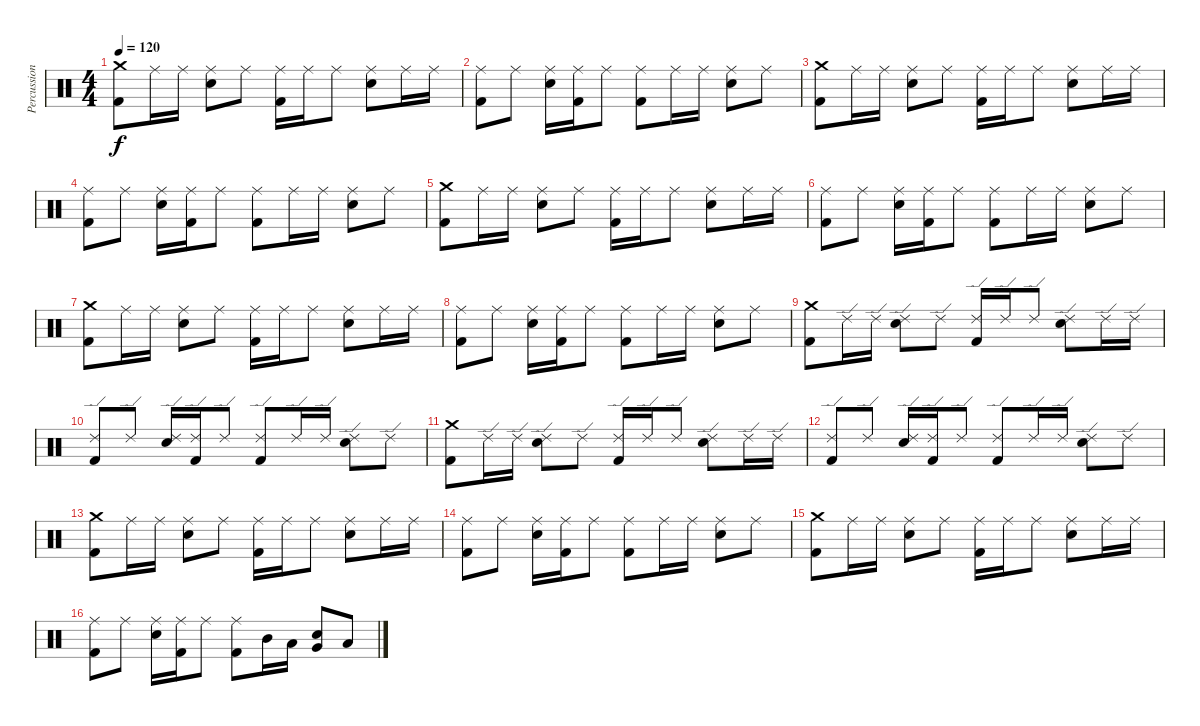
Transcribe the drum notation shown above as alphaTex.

\track ("Percussion" "Percussion") {instrument percussion}
\staff {score}
\articulation defaults
\ts (4 4)
\tempo 120
\clef neutral
\ks c
("Crash medium (hit)" "Kick (hit) 2").8{dy f} "Ride (middle)".16 "Ride (middle)".16 ("Ride (middle)" "Snare (hit) 2").8 "Ride (middle)".8 ("Ride (middle)" "Kick (hit) 2").16 "Ride (middle)".16 "Ride (middle)".8 ("Ride (middle)" "Snare (hit) 2").8 "Ride (middle)".16 "Ride (middle)".16 |
("Ride (middle)" "Kick (hit) 2").8 "Ride (middle)".8 ("Ride (middle)" "Snare (hit) 2").16 ("Ride (middle)" "Kick (hit) 2").16 "Ride (middle)".8 ("Ride (middle)" "Kick (hit) 2").8 "Ride (middle)".16 "Ride (middle)".16 ("Ride (middle)" "Snare (hit) 2").8 "Ride (middle)".8 |
("Crash medium (hit)" "Kick (hit) 2").8 "Ride (middle)".16 "Ride (middle)".16 ("Ride (middle)" "Snare (hit) 2").8 "Ride (middle)".8 ("Ride (middle)" "Kick (hit) 2").16 "Ride (middle)".16 "Ride (middle)".8 ("Ride (middle)" "Snare (hit) 2").8 "Ride (middle)".16 "Ride (middle)".16 |
("Ride (middle)" "Kick (hit) 2").8 "Ride (middle)".8 ("Ride (middle)" "Snare (hit) 2").16 ("Ride (middle)" "Kick (hit) 2").16 "Ride (middle)".8 ("Ride (middle)" "Kick (hit) 2").8 "Ride (middle)".16 "Ride (middle)".16 ("Ride (middle)" "Snare (hit) 2").8 "Ride (middle)".8 |
("Crash medium (hit)" "Kick (hit) 2").8 "Ride (middle)".16 "Ride (middle)".16 ("Ride (middle)" "Snare (hit) 2").8 "Ride (middle)".8 ("Ride (middle)" "Kick (hit) 2").16 "Ride (middle)".16 "Ride (middle)".8 ("Ride (middle)" "Snare (hit) 2").8 "Ride (middle)".16 "Ride (middle)".16 |
("Ride (middle)" "Kick (hit) 2").8 "Ride (middle)".8 ("Ride (middle)" "Snare (hit) 2").16 ("Ride (middle)" "Kick (hit) 2").16 "Ride (middle)".8 ("Ride (middle)" "Kick (hit) 2").8 "Ride (middle)".16 "Ride (middle)".16 ("Ride (middle)" "Snare (hit) 2").8 "Ride (middle)".8 |
("Crash medium (hit)" "Kick (hit) 2").8 "Ride (middle)".16 "Ride (middle)".16 ("Ride (middle)" "Snare (hit) 2").8 "Ride (middle)".8 ("Ride (middle)" "Kick (hit) 2").16 "Ride (middle)".16 "Ride (middle)".8 ("Ride (middle)" "Snare (hit) 2").8 "Ride (middle)".16 "Ride (middle)".16 |
("Ride (middle)" "Kick (hit) 2").8 "Ride (middle)".8 ("Ride (middle)" "Snare (hit) 2").16 ("Ride (middle)" "Kick (hit) 2").16 "Ride (middle)".8 ("Ride (middle)" "Kick (hit) 2").8 "Ride (middle)".16 "Ride (middle)".16 ("Ride (middle)" "Snare (hit) 2").8 "Ride (middle)".8 |
("Crash medium (hit)" "Kick (hit) 2").8 "Ride (edge) 2".16 "Ride (edge) 2".16 ("Ride (edge) 2" "Snare (hit) 2").8 "Ride (edge) 2".8 ("Ride (edge) 2" "Kick (hit) 2").16 "Ride (edge) 2".16 "Ride (edge) 2".8 ("Ride (edge) 2" "Snare (hit) 2").8 "Ride (edge) 2".16 "Ride (edge) 2".16 |
("Ride (edge) 2" "Kick (hit) 2").8 "Ride (edge) 2".8 ("Ride (edge) 2" "Snare (hit) 2").16 ("Ride (edge) 2" "Kick (hit) 2").16 "Ride (edge) 2".8 ("Ride (edge) 2" "Kick (hit) 2").8 "Ride (edge) 2".16 "Ride (edge) 2".16 ("Ride (edge) 2" "Snare (hit) 2").8 "Ride (edge) 2".8 |
("Crash medium (hit)" "Kick (hit) 2").8 "Ride (edge) 2".16 "Ride (edge) 2".16 ("Ride (edge) 2" "Snare (hit) 2").8 "Ride (edge) 2".8 ("Ride (edge) 2" "Kick (hit) 2").16 "Ride (edge) 2".16 "Ride (edge) 2".8 ("Ride (edge) 2" "Snare (hit) 2").8 "Ride (edge) 2".16 "Ride (edge) 2".16 |
("Ride (edge) 2" "Kick (hit) 2").8 "Ride (edge) 2".8 ("Ride (edge) 2" "Snare (hit) 2").16 ("Ride (edge) 2" "Kick (hit) 2").16 "Ride (edge) 2".8 ("Ride (edge) 2" "Kick (hit) 2").8 "Ride (edge) 2".16 "Ride (edge) 2".16 ("Ride (edge) 2" "Snare (hit) 2").8 "Ride (edge) 2".8 |
("Crash medium (hit)" "Kick (hit) 2").8 "Ride (middle)".16 "Ride (middle)".16 ("Ride (middle)" "Snare (hit) 2").8 "Ride (middle)".8 ("Ride (middle)" "Kick (hit) 2").16 "Ride (middle)".16 "Ride (middle)".8 ("Ride (middle)" "Snare (hit) 2").8 "Ride (middle)".16 "Ride (middle)".16 |
("Ride (middle)" "Kick (hit) 2").8 "Ride (middle)".8 ("Ride (middle)" "Snare (hit) 2").16 ("Ride (middle)" "Kick (hit) 2").16 "Ride (middle)".8 ("Ride (middle)" "Kick (hit) 2").8 "Ride (middle)".16 "Ride (middle)".16 ("Ride (middle)" "Snare (hit) 2").8 "Ride (middle)".8 |
("Crash medium (hit)" "Kick (hit) 2").8 "Ride (middle)".16 "Ride (middle)".16 ("Ride (middle)" "Snare (hit) 2").8 "Ride (middle)".8 ("Ride (middle)" "Kick (hit) 2").16 "Ride (middle)".16 "Ride (middle)".8 ("Ride (middle)" "Snare (hit) 2").8 "Ride (middle)".16 "Ride (middle)".16 |
("Ride (middle)" "Kick (hit) 2").8 "Ride (middle)".8 ("Ride (middle)" "Snare (hit) 2").16 ("Ride (middle)" "Kick (hit) 2").16 "Ride (middle)".8 ("Ride (middle)" "Kick (hit) 2").8 "Mid Tom (hit)".16 "Low Tom (hit)".16 ("Very Low Tom (hit)" "Snare (hit) 2").8 "Low Floor Tom (hit)".8
